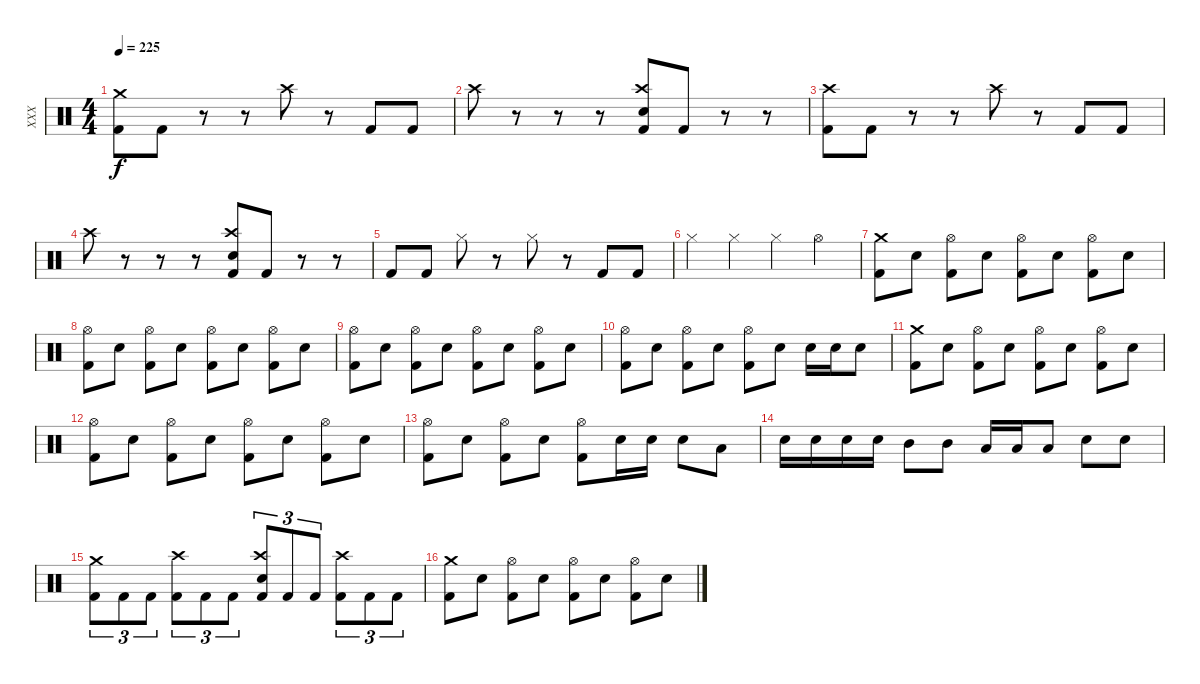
\track ("XXX" "XXX") {instrument percussion}
\staff {score}
\articulation defaults
\ts (4 4)
\tempo 225
\clef neutral
\ks c
("Crash medium (hit)" "Kick (hit) 2").8{dy f} "Kick (hit) 2".8 r.8 r.8 "Crash high (hit)".8 r.8 "Kick (hit) 2".8 "Kick (hit) 2".8 |
"Crash high (hit)".8 r.8 r.8 r.8 ("Crash high (hit)" "Electric Snare (hit)" "Kick (hit) 2").8 "Kick (hit) 2".8 r.8 r.8 |
("Crash high (hit)" "Kick (hit) 2").8 "Kick (hit) 2".8 r.8 r.8 "Crash high (hit)".8 r.8 "Kick (hit) 2".8 "Kick (hit) 2".8 |
"Crash high (hit)".8 r.8 r.8 r.8 ("Crash high (hit)" "Electric Snare (hit)" "Kick (hit) 2").8 "Kick (hit) 2".8 r.8 r.8 |
"Kick (hit) 2".8 "Kick (hit) 2".8 "Hi-Hat (closed)".8 r.8 "Hi-Hat (closed)".8 r.8 "Kick (hit) 2".8 "Kick (hit) 2".8 |
"Hi-Hat (closed)".4 "Hi-Hat (closed)".4 "Hi-Hat (closed)".4 "Hi-Hat (open)".4 |
("Crash medium (hit)" "Kick (hit) 2").8 "Electric Snare (hit)".8 ("Hi-Hat (open)" "Kick (hit) 2").8 "Electric Snare (hit)".8 ("Hi-Hat (open)" "Kick (hit) 2").8 "Electric Snare (hit)".8 ("Hi-Hat (open)" "Kick (hit) 2").8 "Electric Snare (hit)".8 |
("Hi-Hat (open)" "Kick (hit) 2").8 "Electric Snare (hit)".8 ("Hi-Hat (open)" "Kick (hit) 2").8 "Electric Snare (hit)".8 ("Hi-Hat (open)" "Kick (hit) 2").8 "Electric Snare (hit)".8 ("Hi-Hat (open)" "Kick (hit) 2").8 "Electric Snare (hit)".8 |
("Hi-Hat (open)" "Kick (hit) 2").8 "Electric Snare (hit)".8 ("Hi-Hat (open)" "Kick (hit) 2").8 "Electric Snare (hit)".8 ("Hi-Hat (open)" "Kick (hit) 2").8 "Electric Snare (hit)".8 ("Hi-Hat (open)" "Kick (hit) 2").8 "Electric Snare (hit)".8 |
("Hi-Hat (open)" "Kick (hit) 2").8 "Electric Snare (hit)".8 ("Hi-Hat (open)" "Kick (hit) 2").8 "Electric Snare (hit)".8 ("Hi-Hat (open)" "Kick (hit) 2").8 "Electric Snare (hit)".8 "Electric Snare (hit)".16 "Electric Snare (hit)".16 "Electric Snare (hit)".8 |
("Crash medium (hit)" "Kick (hit) 2").8 "Electric Snare (hit)".8 ("Hi-Hat (open)" "Kick (hit) 2").8 "Electric Snare (hit)".8 ("Hi-Hat (open)" "Kick (hit) 2").8 "Electric Snare (hit)".8 ("Hi-Hat (open)" "Kick (hit) 2").8 "Electric Snare (hit)".8 |
("Hi-Hat (open)" "Kick (hit) 2").8 "Electric Snare (hit)".8 ("Hi-Hat (open)" "Kick (hit) 2").8 "Electric Snare (hit)".8 ("Hi-Hat (open)" "Kick (hit) 2").8 "Electric Snare (hit)".8 ("Hi-Hat (open)" "Kick (hit) 2").8 "Electric Snare (hit)".8 |
("Hi-Hat (open)" "Kick (hit) 2").8 "Electric Snare (hit)".8 ("Hi-Hat (open)" "Kick (hit) 2").8 "Electric Snare (hit)".8 ("Hi-Hat (open)" "Kick (hit) 2").8 "Electric Snare (hit)".16 "Electric Snare (hit)".16 "Electric Snare (hit)".8 "Low Tom (hit)".8 |
"Electric Snare (hit)".16 "Electric Snare (hit)".16 "Electric Snare (hit)".16 "Electric Snare (hit)".16 "Mid Tom (hit)".8 "Mid Tom (hit)".8 "Low Tom (hit)".16 "Low Tom (hit)".16 "Low Tom (hit)".8 "Electric Snare (hit)".8 "Electric Snare (hit)".8 |
("Crash medium (hit)" "Kick (hit) 2").8{tu (3 2)} "Kick (hit) 2".8{tu (3 2)} "Kick (hit) 2".8{tu (3 2)} ("Crash high (hit)" "Kick (hit) 2").8{tu (3 2)} "Kick (hit) 2".8{tu (3 2)} "Kick (hit) 2".8{tu (3 2)} ("Crash high (hit)" "Electric Snare (hit)" "Kick (hit) 2").8{tu (3 2)} "Kick (hit) 2".8{tu (3 2)} "Kick (hit) 2".8{tu (3 2)} ("Crash high (hit)" "Kick (hit) 2").8{tu (3 2)} "Kick (hit) 2".8{tu (3 2)} "Kick (hit) 2".8{tu (3 2)} |
("Crash medium (hit)" "Kick (hit) 2").8 "Electric Snare (hit)".8 ("Hi-Hat (open)" "Kick (hit) 2").8 "Electric Snare (hit)".8 ("Hi-Hat (open)" "Kick (hit) 2").8 "Electric Snare (hit)".8 ("Hi-Hat (open)" "Kick (hit) 2").8 "Electric Snare (hit)".8
